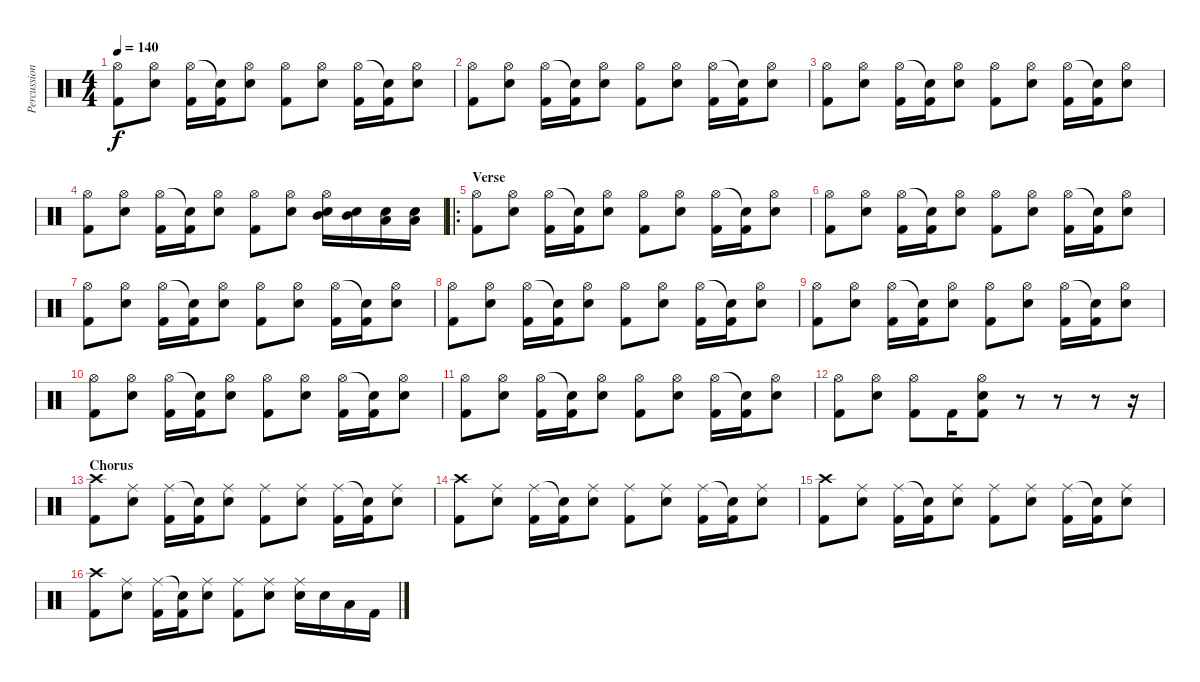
\track ("Percussion" "Percussion") {instrument percussion}
\staff {score}
\articulation defaults
\ts (4 4)
\tempo 140
\clef neutral
\ks c
("Hi-Hat (open)" "Kick (hit) 2").8{dy f} ("Hi-Hat (open)" "Electric Snare (hit)").8 ("Hi-Hat (open)" "Kick (hit) 2").16 ("Snare (hit)"{t} "Kick (hit) 2").16 ("Hi-Hat (open)" "Electric Snare (hit)").8 ("Hi-Hat (open)" "Kick (hit) 2").8 ("Hi-Hat (open)" "Electric Snare (hit)").8 ("Hi-Hat (open)" "Kick (hit) 2").16 ("Snare (hit)"{t} "Kick (hit) 2").16 ("Hi-Hat (open)" "Electric Snare (hit)").8 |
("Hi-Hat (open)" "Kick (hit) 2").8 ("Hi-Hat (open)" "Electric Snare (hit)").8 ("Hi-Hat (open)" "Kick (hit) 2").16 ("Snare (hit)"{t} "Kick (hit) 2").16 ("Hi-Hat (open)" "Electric Snare (hit)").8 ("Hi-Hat (open)" "Kick (hit) 2").8 ("Hi-Hat (open)" "Electric Snare (hit)").8 ("Hi-Hat (open)" "Kick (hit) 2").16 ("Snare (hit)"{t} "Kick (hit) 2").16 ("Hi-Hat (open)" "Electric Snare (hit)").8 |
("Hi-Hat (open)" "Kick (hit) 2").8 ("Hi-Hat (open)" "Electric Snare (hit)").8 ("Hi-Hat (open)" "Kick (hit) 2").16 ("Snare (hit)"{t} "Kick (hit) 2").16 ("Hi-Hat (open)" "Electric Snare (hit)").8 ("Hi-Hat (open)" "Kick (hit) 2").8 ("Hi-Hat (open)" "Electric Snare (hit)").8 ("Hi-Hat (open)" "Kick (hit) 2").16 ("Snare (hit)"{t} "Kick (hit) 2").16 ("Hi-Hat (open)" "Electric Snare (hit)").8 |
("Hi-Hat (open)" "Kick (hit) 2").8 ("Hi-Hat (open)" "Electric Snare (hit)").8 ("Hi-Hat (open)" "Kick (hit) 2").16 ("Snare (hit)"{t} "Kick (hit) 2").16 ("Hi-Hat (open)" "Electric Snare (hit)").8 ("Hi-Hat (open)" "Kick (hit) 2").8 ("Hi-Hat (open)" "Electric Snare (hit)").8 ("Hi-Hat (open)" "Electric Snare (hit)" "Mid Tom (hit)").16 ("Electric Snare (hit)" "Mid Tom (hit)").16 ("Electric Snare (hit)" "Low Tom (hit)").16 ("Electric Snare (hit)" "Low Tom (hit)").16 |
\ro
\section ("" "Verse")
("Hi-Hat (open)" "Kick (hit) 2").8 ("Hi-Hat (open)" "Electric Snare (hit)").8 ("Hi-Hat (open)" "Kick (hit) 2").16 ("Snare (hit)"{t} "Kick (hit) 2").16 ("Hi-Hat (open)" "Electric Snare (hit)").8 ("Hi-Hat (open)" "Kick (hit) 2").8 ("Hi-Hat (open)" "Electric Snare (hit)").8 ("Hi-Hat (open)" "Kick (hit) 2").16 ("Snare (hit)"{t} "Kick (hit) 2").16 ("Hi-Hat (open)" "Electric Snare (hit)").8 |
("Hi-Hat (open)" "Kick (hit) 2").8 ("Hi-Hat (open)" "Electric Snare (hit)").8 ("Hi-Hat (open)" "Kick (hit) 2").16 ("Snare (hit)"{t} "Kick (hit) 2").16 ("Hi-Hat (open)" "Electric Snare (hit)").8 ("Hi-Hat (open)" "Kick (hit) 2").8 ("Hi-Hat (open)" "Electric Snare (hit)").8 ("Hi-Hat (open)" "Kick (hit) 2").16 ("Snare (hit)"{t} "Kick (hit) 2").16 ("Hi-Hat (open)" "Electric Snare (hit)").8 |
("Hi-Hat (open)" "Kick (hit) 2").8 ("Hi-Hat (open)" "Electric Snare (hit)").8 ("Hi-Hat (open)" "Kick (hit) 2").16 ("Snare (hit)"{t} "Kick (hit) 2").16 ("Hi-Hat (open)" "Electric Snare (hit)").8 ("Hi-Hat (open)" "Kick (hit) 2").8 ("Hi-Hat (open)" "Electric Snare (hit)").8 ("Hi-Hat (open)" "Kick (hit) 2").16 ("Snare (hit)"{t} "Kick (hit) 2").16 ("Hi-Hat (open)" "Electric Snare (hit)").8 |
("Hi-Hat (open)" "Kick (hit) 2").8 ("Hi-Hat (open)" "Electric Snare (hit)").8 ("Hi-Hat (open)" "Kick (hit) 2").16 ("Snare (hit)"{t} "Kick (hit) 2").16 ("Hi-Hat (open)" "Electric Snare (hit)").8 ("Hi-Hat (open)" "Kick (hit) 2").8 ("Hi-Hat (open)" "Electric Snare (hit)").8 ("Hi-Hat (open)" "Kick (hit) 2").16 ("Snare (hit)"{t} "Kick (hit) 2").16 ("Hi-Hat (open)" "Electric Snare (hit)").8 |
("Hi-Hat (open)" "Kick (hit) 2").8 ("Hi-Hat (open)" "Electric Snare (hit)").8 ("Hi-Hat (open)" "Kick (hit) 2").16 ("Snare (hit)"{t} "Kick (hit) 2").16 ("Hi-Hat (open)" "Electric Snare (hit)").8 ("Hi-Hat (open)" "Kick (hit) 2").8 ("Hi-Hat (open)" "Electric Snare (hit)").8 ("Hi-Hat (open)" "Kick (hit) 2").16 ("Snare (hit)"{t} "Kick (hit) 2").16 ("Hi-Hat (open)" "Electric Snare (hit)").8 |
("Hi-Hat (open)" "Kick (hit) 2").8 ("Hi-Hat (open)" "Electric Snare (hit)").8 ("Hi-Hat (open)" "Kick (hit) 2").16 ("Snare (hit)"{t} "Kick (hit) 2").16 ("Hi-Hat (open)" "Electric Snare (hit)").8 ("Hi-Hat (open)" "Kick (hit) 2").8 ("Hi-Hat (open)" "Electric Snare (hit)").8 ("Hi-Hat (open)" "Kick (hit) 2").16 ("Snare (hit)"{t} "Kick (hit) 2").16 ("Hi-Hat (open)" "Electric Snare (hit)").8 |
("Hi-Hat (open)" "Kick (hit) 2").8 ("Hi-Hat (open)" "Electric Snare (hit)").8 ("Hi-Hat (open)" "Kick (hit) 2").16 ("Snare (hit)"{t} "Kick (hit) 2").16 ("Hi-Hat (open)" "Electric Snare (hit)").8 ("Hi-Hat (open)" "Kick (hit) 2").8 ("Hi-Hat (open)" "Electric Snare (hit)").8 ("Hi-Hat (open)" "Kick (hit) 2").16 ("Snare (hit)"{t} "Kick (hit) 2").16 ("Hi-Hat (open)" "Electric Snare (hit)").8 |
("Hi-Hat (open)" "Kick (hit) 2").8 ("Hi-Hat (open)" "Electric Snare (hit)").8 ("Hi-Hat (open)" "Kick (hit) 2").8 "Kick (hit) 2".16 ("Hi-Hat (open)" "Electric Snare (hit)" "Kick (hit) 2").8 r.8 r.8 r.8 r.16 |
\section ("" "Chorus")
("Crash high (hit)" "Kick (hit) 2").8 ("Ride (middle)" "Electric Snare (hit)").8 ("Ride (middle)" "Kick (hit) 2").16 ("Snare (hit)"{t} "Kick (hit) 2").16 ("Ride (middle)" "Electric Snare (hit)").8 ("Ride (middle)" "Kick (hit) 2").8 ("Ride (middle)" "Electric Snare (hit)").8 ("Ride (middle)" "Kick (hit) 2").16 ("Snare (hit)"{t} "Kick (hit) 2").16 ("Ride (middle)" "Electric Snare (hit)").8 |
("Crash high (hit)" "Kick (hit) 2").8 ("Ride (middle)" "Electric Snare (hit)").8 ("Ride (middle)" "Kick (hit) 2").16 ("Snare (hit)"{t} "Kick (hit) 2").16 ("Ride (middle)" "Electric Snare (hit)").8 ("Ride (middle)" "Kick (hit) 2").8 ("Ride (middle)" "Electric Snare (hit)").8 ("Ride (middle)" "Kick (hit) 2").16 ("Snare (hit)"{t} "Kick (hit) 2").16 ("Ride (middle)" "Electric Snare (hit)").8 |
("Crash high (hit)" "Kick (hit) 2").8 ("Ride (middle)" "Electric Snare (hit)").8 ("Ride (middle)" "Kick (hit) 2").16 ("Snare (hit)"{t} "Kick (hit) 2").16 ("Ride (middle)" "Electric Snare (hit)").8 ("Ride (middle)" "Kick (hit) 2").8 ("Ride (middle)" "Electric Snare (hit)").8 ("Ride (middle)" "Kick (hit) 2").16 ("Snare (hit)"{t} "Kick (hit) 2").16 ("Ride (middle)" "Electric Snare (hit)").8 |
("Crash high (hit)" "Kick (hit) 2").8 ("Ride (middle)" "Electric Snare (hit)").8 ("Ride (middle)" "Kick (hit) 2").16 ("Snare (hit)"{t} "Kick (hit) 2").16 ("Ride (middle)" "Electric Snare (hit)").8 ("Ride (middle)" "Kick (hit) 2").8 ("Ride (middle)" "Electric Snare (hit)").8 ("Ride (middle)" "Electric Snare (hit)").16 "Electric Snare (hit)".16 "Low Tom (hit)".16 "Kick (hit) 2".16
